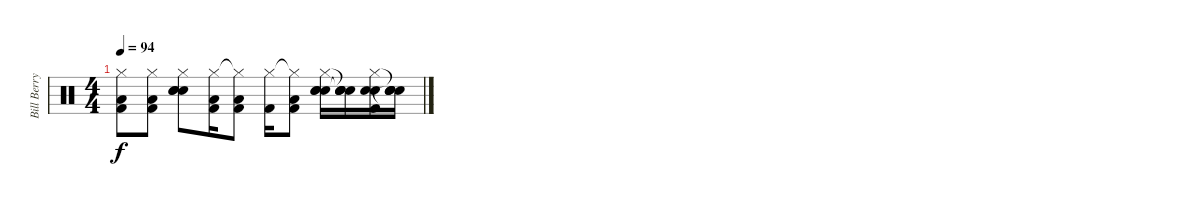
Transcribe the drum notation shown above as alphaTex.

\track ("Bill Berry - Drums" "Bill Berry") {instrument percussion}
\staff {score}
\articulation defaults
\ts (4 4)
\tempo 94
\clef neutral
\ks c
("Hi-Hat (closed)" "Kick (hit) 2" "Low Tom (hit)").8{dy f} ("Hi-Hat (closed)" "Kick (hit) 2" "Low Tom (hit)").8 ("Hi-Hat (closed)" "Electric Snare (hit)" "Snare (hit) 2" "Electric Snare (hit)").8 ("Hi-Hat (closed)" "Kick (hit) 2" "Low Tom (hit)").16 ("Hi-Hat (closed)"{t} "Kick (hit) 2" "Low Tom (hit)").8 ("Hi-Hat (closed)" "Kick (hit) 2").16 ("Hi-Hat (closed)"{t} "Kick (hit) 2" "Low Tom (hit)").8 ("Hi-Hat (closed)" "Electric Snare (hit)" "Snare (hit) 2" "Electric Snare (hit)").16 ("Snare (hit)"{t} "Snare (hit)"{t} "Snare (hit) 2" "Electric Snare (hit)").16 ("Hi-Hat (closed)" "Kick (hit) 2" "Snare (hit) 2" "Electric Snare (hit)").16 ("Snare (hit)"{t} "Snare (hit)"{t} "Snare (hit) 2" "Electric Snare (hit)").16
